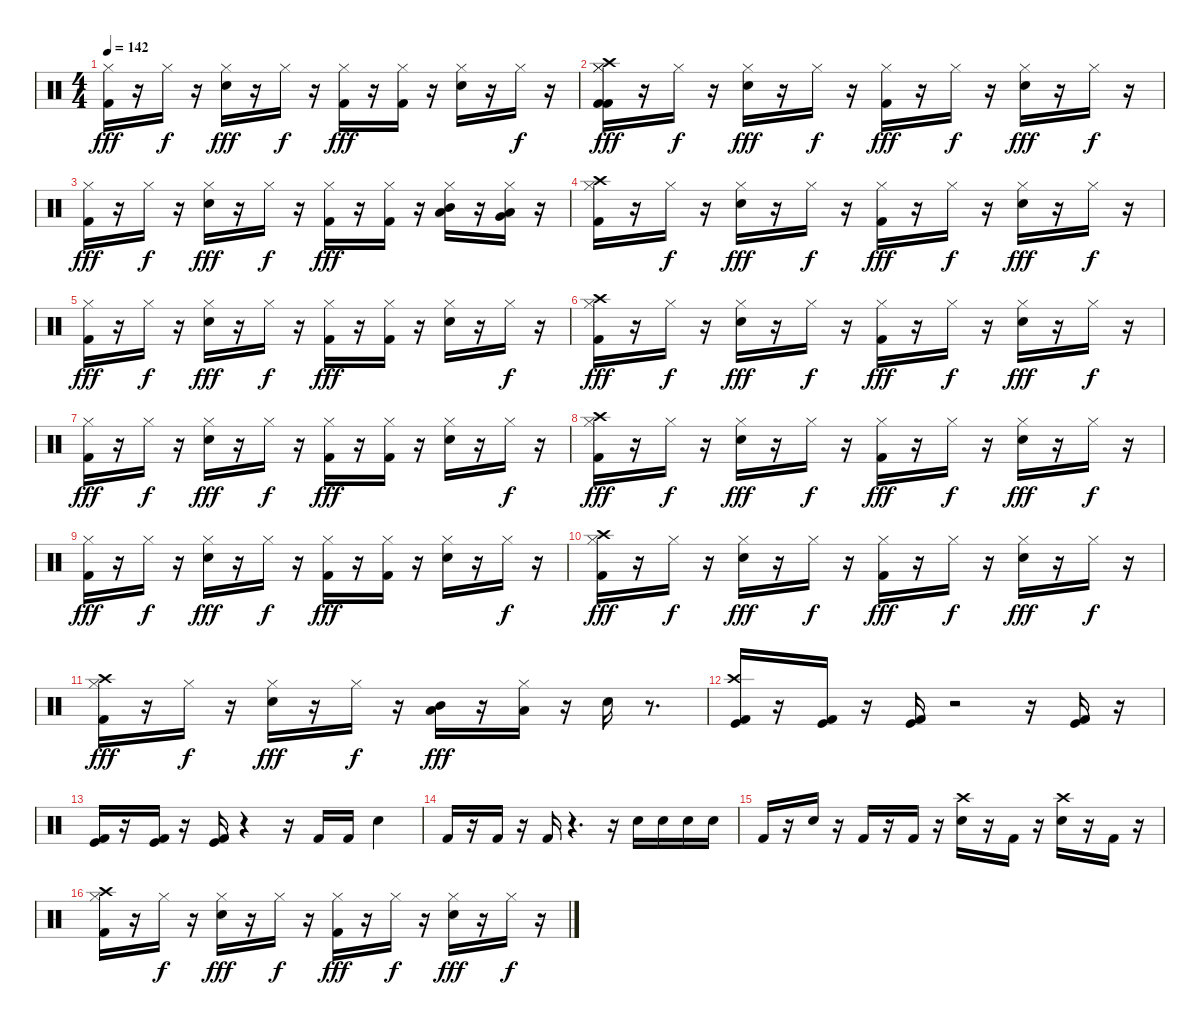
\track "" {instrument percussion}
\staff {score}
\articulation defaults
\ts (4 4)
\tempo 142
\clef neutral
\ks c
("Hi-Hat (closed)" "Kick (hit) 2").16{dy fff} r.16 "Hi-Hat (closed)".16{dy f} r.16 ("Electric Snare (hit)" "Hi-Hat (closed)").16{dy fff} r.16 "Hi-Hat (closed)".16{dy f} r.16 ("Hi-Hat (closed)" "Kick (hit) 2").16{dy fff} r.16 ("Hi-Hat (closed)" "Kick (hit) 2").16 r.16 ("Electric Snare (hit)" "Hi-Hat (closed)").16 r.16 "Hi-Hat (closed)".16{dy f} r.16 |
("Hi-Hat (closed)" "Kick (hit) 2" "Crash high (hit)" "Hi-Hat (closed)" "Kick (hit) 2").16{dy fff} r.16 "Hi-Hat (closed)".16{dy f} r.16 ("Electric Snare (hit)" "Hi-Hat (closed)").16{dy fff} r.16 "Hi-Hat (closed)".16{dy f} r.16 ("Hi-Hat (closed)" "Kick (hit) 2").16{dy fff} r.16 "Hi-Hat (closed)".16{dy f} r.16 ("Electric Snare (hit)" "Hi-Hat (closed)").16{dy fff} r.16 "Hi-Hat (closed)".16{dy f} r.16 |
("Hi-Hat (closed)" "Kick (hit) 2").16{dy fff} r.16 "Hi-Hat (closed)".16{dy f} r.16 ("Electric Snare (hit)" "Hi-Hat (closed)").16{dy fff} r.16 "Hi-Hat (closed)".16{dy f} r.16 ("Hi-Hat (closed)" "Kick (hit) 2").16{dy fff} r.16 ("Hi-Hat (closed)" "Kick (hit) 2").16 r.16 ("Low Tom (hit)" "Mid Tom (hit)" "Hi-Hat (closed)").16{balance 0} r.16 ("Very Low Tom (hit)" "Low Tom (hit)" "Hi-Hat (closed)").16{balance 16} r.16 |
("Hi-Hat (closed)" "Kick (hit) 2" "Crash high (hit)").16{balance 8} r.16 "Hi-Hat (closed)".16{dy f} r.16 ("Electric Snare (hit)" "Hi-Hat (closed)").16{dy fff} r.16 "Hi-Hat (closed)".16{dy f} r.16 ("Hi-Hat (closed)" "Kick (hit) 2").16{dy fff} r.16 "Hi-Hat (closed)".16{dy f} r.16 ("Electric Snare (hit)" "Hi-Hat (closed)").16{dy fff} r.16 "Hi-Hat (closed)".16{dy f} r.16 |
("Hi-Hat (closed)" "Kick (hit) 2").16{dy fff} r.16 "Hi-Hat (closed)".16{dy f} r.16 ("Electric Snare (hit)" "Hi-Hat (closed)").16{dy fff} r.16 "Hi-Hat (closed)".16{dy f} r.16 ("Hi-Hat (closed)" "Kick (hit) 2").16{dy fff} r.16 ("Hi-Hat (closed)" "Kick (hit) 2").16 r.16 ("Electric Snare (hit)" "Hi-Hat (closed)").16 r.16 "Hi-Hat (closed)".16{dy f} r.16 |
("Hi-Hat (closed)" "Kick (hit) 2" "Crash high (hit)").16{dy fff} r.16 "Hi-Hat (closed)".16{dy f} r.16 ("Electric Snare (hit)" "Hi-Hat (closed)").16{dy fff} r.16 "Hi-Hat (closed)".16{dy f} r.16 ("Hi-Hat (closed)" "Kick (hit) 2").16{dy fff} r.16 "Hi-Hat (closed)".16{dy f} r.16 ("Electric Snare (hit)" "Hi-Hat (closed)").16{dy fff} r.16 "Hi-Hat (closed)".16{dy f} r.16 |
("Hi-Hat (closed)" "Kick (hit) 2").16{dy fff} r.16 "Hi-Hat (closed)".16{dy f} r.16 ("Electric Snare (hit)" "Hi-Hat (closed)").16{dy fff} r.16 "Hi-Hat (closed)".16{dy f} r.16 ("Hi-Hat (closed)" "Kick (hit) 2").16{dy fff} r.16 ("Hi-Hat (closed)" "Kick (hit) 2").16 r.16 ("Electric Snare (hit)" "Hi-Hat (closed)").16 r.16 "Hi-Hat (closed)".16{dy f} r.16 |
("Crash high (hit)" "Hi-Hat (closed)" "Kick (hit) 2").16{dy fff} r.16 "Hi-Hat (closed)".16{dy f} r.16 ("Electric Snare (hit)" "Hi-Hat (closed)").16{dy fff} r.16 "Hi-Hat (closed)".16{dy f} r.16 ("Hi-Hat (closed)" "Kick (hit) 2").16{dy fff} r.16 "Hi-Hat (closed)".16{dy f} r.16 ("Electric Snare (hit)" "Hi-Hat (closed)").16{dy fff} r.16 "Hi-Hat (closed)".16{dy f} r.16 |
("Hi-Hat (closed)" "Kick (hit) 2").16{dy fff} r.16 "Hi-Hat (closed)".16{dy f} r.16 ("Electric Snare (hit)" "Hi-Hat (closed)").16{dy fff} r.16 "Hi-Hat (closed)".16{dy f} r.16 ("Hi-Hat (closed)" "Kick (hit) 2").16{dy fff} r.16 ("Hi-Hat (closed)" "Kick (hit) 2").16 r.16 ("Electric Snare (hit)" "Hi-Hat (closed)").16 r.16 "Hi-Hat (closed)".16{dy f} r.16 |
("Crash high (hit)" "Hi-Hat (closed)" "Kick (hit) 2").16{dy fff} r.16 "Hi-Hat (closed)".16{dy f} r.16 ("Electric Snare (hit)" "Hi-Hat (closed)").16{dy fff} r.16 "Hi-Hat (closed)".16{dy f} r.16 ("Hi-Hat (closed)" "Kick (hit) 2").16{dy fff} r.16 "Hi-Hat (closed)".16{dy f} r.16 ("Electric Snare (hit)" "Hi-Hat (closed)").16{dy fff} r.16 "Hi-Hat (closed)".16{dy f} r.16 |
("Kick (hit) 2" "Hi-Hat (closed)" "Crash high (hit)").16{dy fff} r.16 "Hi-Hat (closed)".16{dy f} r.16 ("Electric Snare (hit)" "Hi-Hat (closed)").16{dy fff} r.16 "Hi-Hat (closed)".16{dy f} r.16 ("Low Tom (hit)" "Mid Tom (hit)").16{dy fff balance 0} r.16 ("Hi-Hat (closed)" "Low Tom (hit)").16{balance 16} r.16 "Electric Snare (hit)".16{balance 8} r.8{d} |
("Kick (hit)" "Crash high (hit)" "Kick (hit) 2").16 r.16 ("Kick (hit)" "Kick (hit) 2").16 r.16 ("Kick (hit)" "Kick (hit) 2").16 r.2 r.16 ("Kick (hit)" "Kick (hit) 2").16 r.16 |
("Kick (hit)" "Kick (hit) 2").16 r.16 ("Kick (hit)" "Kick (hit) 2").16 r.16 ("Kick (hit)" "Kick (hit) 2").16 r.4 r.16 "Kick (hit) 2".16 "Kick (hit) 2".16 "Electric Snare (hit)".4 |
"Kick (hit) 2".16 r.16 "Kick (hit) 2".16 r.16 "Kick (hit) 2".16 r.4{d} r.16 "Electric Snare (hit)".16 "Snare (hit) 2".16 "Electric Snare (hit)".16 "Snare (hit) 2".16 |
"Kick (hit) 2".16 r.16 "Snare (hit) 2".16 r.16 "Kick (hit) 2".16 r.16 "Kick (hit) 2".16 r.16 ("Crash high (hit)" "Electric Snare (hit)").16 r.16 "Kick (hit) 2".16 r.16 ("Crash high (hit)" "Electric Snare (hit)").16 r.16 "Kick (hit) 2".16 r.16 |
("Hi-Hat (closed)" "Kick (hit) 2" "Crash high (hit)").16 r.16 "Hi-Hat (closed)".16{dy f} r.16 ("Electric Snare (hit)" "Hi-Hat (closed)").16{dy fff} r.16 "Hi-Hat (closed)".16{dy f} r.16 ("Hi-Hat (closed)" "Kick (hit) 2").16{dy fff} r.16 "Hi-Hat (closed)".16{dy f} r.16 ("Electric Snare (hit)" "Hi-Hat (closed)").16{dy fff} r.16 "Hi-Hat (closed)".16{dy f} r.16
